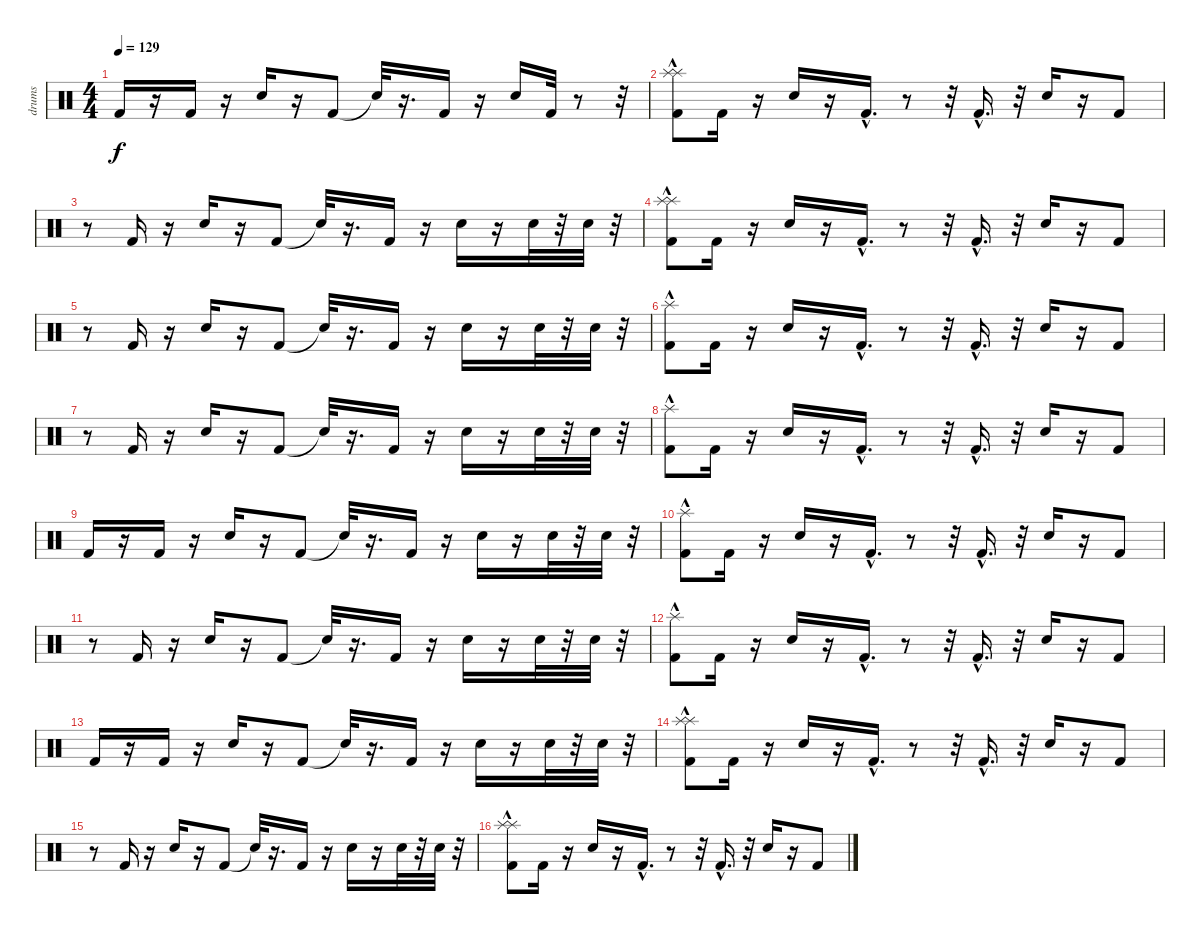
\track ("drums" "drums") {instrument percussion}
\staff {score}
\articulation defaults
\ts (4 4)
\tempo 129
\clef neutral
\ks c "Kick (hit) 2".16{dy f}
r.16 "Kick (hit) 2".16 r.16 "Snare (hit) 2".16 r.16 "Kick (hit) 2".8 "Snare (hit)"{t}.32 r.16{d} "Kick (hit) 2".16 r.16 "Snare (hit) 2".16 "Kick (hit) 2".32 r.8 r.32 |
("Kick (hit) 2" "Splash (hit)"{hac} "Splash (hit)"{hac}).8 "Kick (hit) 2".16 r.16 "Snare (hit) 2".16 r.16 "Kick (hit) 2"{hac}.16{d} r.8 r.32 "Kick (hit) 2"{hac}.16{d} r.32 "Snare (hit) 2".16 r.16 "Kick (hit) 2".8 |
r.8 "Kick (hit) 2".16 r.16 "Snare (hit) 2".16 r.16 "Kick (hit) 2".8 "Snare (hit)"{t}.32 r.16{d} "Kick (hit) 2".16 r.16 "Snare (hit) 2".16 r.16 "Snare (hit) 2".32 r.32 "Snare (hit) 2".32 r.32 |
("Kick (hit) 2" "Splash (hit)"{hac} "Splash (hit)"{hac}).8 "Kick (hit) 2".16 r.16 "Snare (hit) 2".16 r.16 "Kick (hit) 2"{hac}.16{d} r.8 r.32 "Kick (hit) 2"{hac}.16{d} r.32 "Snare (hit) 2".16 r.16 "Kick (hit) 2".8 |
r.8 "Kick (hit) 2".16 r.16 "Snare (hit) 2".16 r.16 "Kick (hit) 2".8 "Snare (hit)"{t}.32 r.16{d} "Kick (hit) 2".16 r.16 "Snare (hit) 2".16 r.16 "Snare (hit) 2".32 r.32 "Snare (hit) 2".32 r.32 |
("Kick (hit) 2" "Splash (hit)"{hac}).8 "Kick (hit) 2".16 r.16 "Snare (hit) 2".16 r.16 "Kick (hit) 2"{hac}.16{d} r.8 r.32 "Kick (hit) 2"{hac}.16{d} r.32 "Snare (hit) 2".16 r.16 "Kick (hit) 2".8 |
r.8 "Kick (hit) 2".16 r.16 "Snare (hit) 2".16 r.16 "Kick (hit) 2".8 "Snare (hit)"{t}.32 r.16{d} "Kick (hit) 2".16 r.16 "Snare (hit) 2".16 r.16 "Snare (hit) 2".32 r.32 "Snare (hit) 2".32 r.32 |
("Kick (hit) 2" "Splash (hit)"{hac}).8 "Kick (hit) 2".16 r.16 "Snare (hit) 2".16 r.16 "Kick (hit) 2"{hac}.16{d} r.8 r.32 "Kick (hit) 2"{hac}.16{d} r.32 "Snare (hit) 2".16 r.16 "Kick (hit) 2".8 |
"Kick (hit) 2".16 r.16 "Kick (hit) 2".16 r.16 "Snare (hit) 2".16 r.16 "Kick (hit) 2".8 "Snare (hit)"{t}.32 r.16{d} "Kick (hit) 2".16 r.16 "Snare (hit) 2".16 r.16 "Snare (hit) 2".32 r.32 "Snare (hit) 2".32 r.32 |
("Kick (hit) 2" "Splash (hit)"{hac}).8 "Kick (hit) 2".16 r.16 "Snare (hit) 2".16 r.16 "Kick (hit) 2"{hac}.16{d} r.8 r.32 "Kick (hit) 2"{hac}.16{d} r.32 "Snare (hit) 2".16 r.16 "Kick (hit) 2".8 |
r.8 "Kick (hit) 2".16 r.16 "Snare (hit) 2".16 r.16 "Kick (hit) 2".8 "Snare (hit)"{t}.32 r.16{d} "Kick (hit) 2".16 r.16 "Snare (hit) 2".16 r.16 "Snare (hit) 2".32 r.32 "Snare (hit) 2".32 r.32 |
("Kick (hit) 2" "Splash (hit)"{hac}).8 "Kick (hit) 2".16 r.16 "Snare (hit) 2".16 r.16 "Kick (hit) 2"{hac}.16{d} r.8 r.32 "Kick (hit) 2"{hac}.16{d} r.32 "Snare (hit) 2".16 r.16 "Kick (hit) 2".8 |
"Kick (hit) 2".16 r.16 "Kick (hit) 2".16 r.16 "Snare (hit) 2".16 r.16 "Kick (hit) 2".8 "Snare (hit)"{t}.32 r.16{d} "Kick (hit) 2".16 r.16 "Snare (hit) 2".16 r.16 "Snare (hit) 2".32 r.32 "Snare (hit) 2".32 r.32 |
("Kick (hit) 2" "Splash (hit)"{hac} "Splash (hit)"{hac}).8 "Kick (hit) 2".16 r.16 "Snare (hit) 2".16 r.16 "Kick (hit) 2"{hac}.16{d} r.8 r.32 "Kick (hit) 2"{hac}.16{d} r.32 "Snare (hit) 2".16 r.16 "Kick (hit) 2".8 |
r.8 "Kick (hit) 2".16 r.16 "Snare (hit) 2".16 r.16 "Kick (hit) 2".8 "Snare (hit)"{t}.32 r.16{d} "Kick (hit) 2".16 r.16 "Snare (hit) 2".16 r.16 "Snare (hit) 2".32 r.32 "Snare (hit) 2".32 r.32 |
("Kick (hit) 2" "Splash (hit)"{hac} "Splash (hit)"{hac}).8 "Kick (hit) 2".16 r.16 "Snare (hit) 2".16 r.16 "Kick (hit) 2"{hac}.16{d} r.8 r.32 "Kick (hit) 2"{hac}.16{d} r.32 "Snare (hit) 2".16 r.16 "Kick (hit) 2".8
